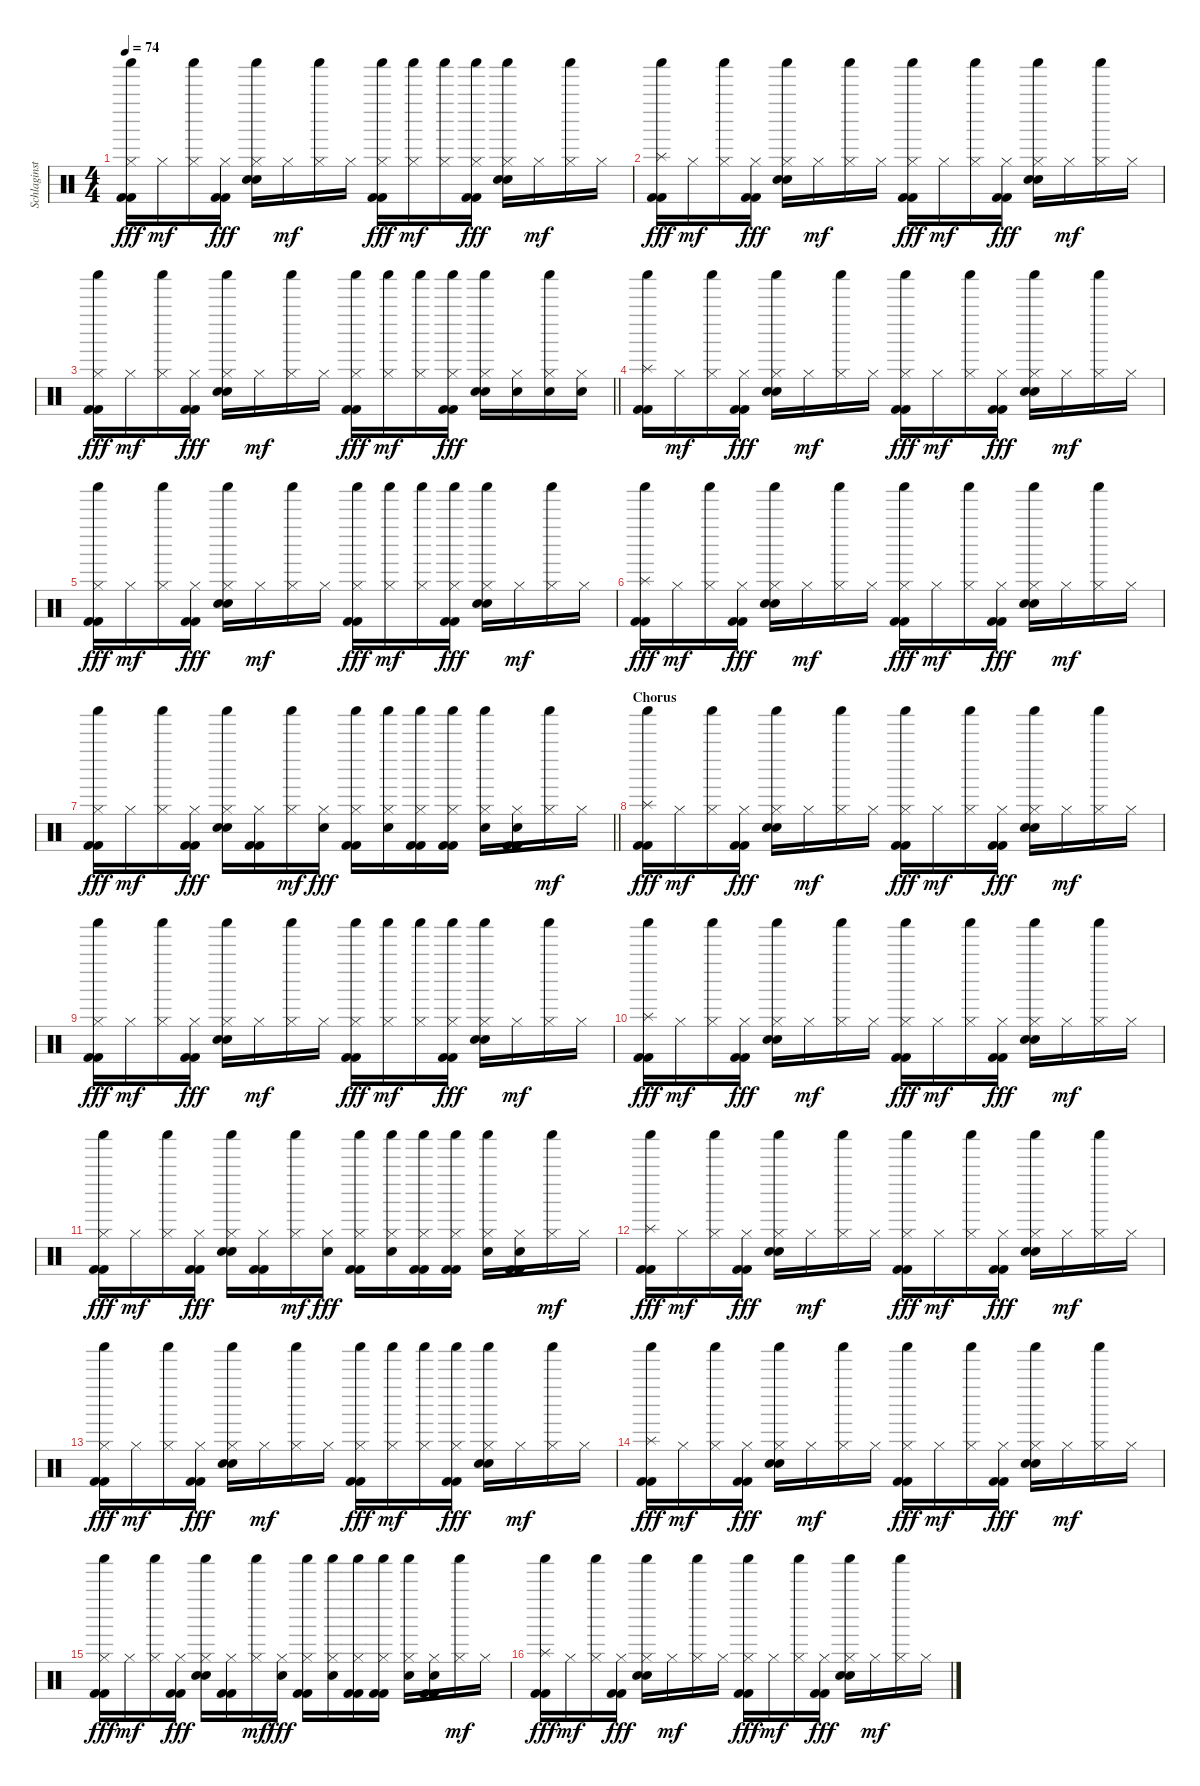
\track ("Schlaginstrumente - Auswahl" "Schlaginst") {instrument percussion}
\staff {score}
\articulation defaults
\ts (4 4)
\tempo 74
\clef neutral
\ks c
("Shaker (hit)" "Hi-Hat (closed)" "Kick (hit) 2" "Kick (hit) 2").16{dy fff} "Hi-Hat (closed)".16{dy mf} ("Shaker (hit)" "Hi-Hat (closed)").16 ("Hi-Hat (closed)" "Kick (hit) 2" "Kick (hit) 2").16{dy fff} ("Shaker (hit)" "Hi-Hat (closed)" "Electric Snare (hit)" "Hand Clap (hit)").16 "Hi-Hat (closed)".16{dy mf} ("Shaker (hit)" "Hi-Hat (closed)").16 "Hi-Hat (closed)".16 ("Shaker (hit)" "Hi-Hat (closed)" "Kick (hit) 2" "Kick (hit) 2").16{dy fff} ("Shaker (hit)" "Hi-Hat (closed)").16{dy mf} ("Shaker (hit)" "Hi-Hat (closed)").16 ("Shaker (hit)" "Hi-Hat (closed)" "Kick (hit) 2" "Kick (hit) 2").16{dy fff} ("Shaker (hit)" "Hi-Hat (closed)" "Electric Snare (hit)" "Hand Clap (hit)").16 "Hi-Hat (closed)".16{dy mf} ("Shaker (hit)" "Hi-Hat (closed)").16 "Hi-Hat (closed)".16 |
("Shaker (hit)" "Splash (hit)" "Kick (hit) 2" "Kick (hit) 2").16{dy fff} "Hi-Hat (closed)".16{dy mf} ("Shaker (hit)" "Hi-Hat (closed)").16 ("Hi-Hat (closed)" "Kick (hit) 2" "Kick (hit) 2").16{dy fff} ("Shaker (hit)" "Hi-Hat (closed)" "Electric Snare (hit)" "Hand Clap (hit)").16 "Hi-Hat (closed)".16{dy mf} ("Shaker (hit)" "Hi-Hat (closed)").16 "Hi-Hat (closed)".16 ("Shaker (hit)" "Hi-Hat (closed)" "Kick (hit) 2" "Kick (hit) 2").16{dy fff} "Hi-Hat (closed)".16{dy mf} ("Shaker (hit)" "Hi-Hat (closed)").16 ("Hi-Hat (closed)" "Kick (hit) 2" "Kick (hit) 2").16{dy fff} ("Shaker (hit)" "Hi-Hat (closed)" "Electric Snare (hit)" "Hand Clap (hit)").16 "Hi-Hat (closed)".16{dy mf} ("Shaker (hit)" "Hi-Hat (closed)").16 "Hi-Hat (closed)".16 |
\barLineRight lightlight
("Shaker (hit)" "Hi-Hat (closed)" "Kick (hit) 2" "Kick (hit) 2").16{dy fff} "Hi-Hat (closed)".16{dy mf} ("Shaker (hit)" "Hi-Hat (closed)").16 ("Hi-Hat (closed)" "Kick (hit) 2" "Kick (hit) 2").16{dy fff} ("Shaker (hit)" "Hi-Hat (closed)" "Electric Snare (hit)" "Hand Clap (hit)").16 "Hi-Hat (closed)".16{dy mf} ("Shaker (hit)" "Hi-Hat (closed)").16 "Hi-Hat (closed)".16 ("Shaker (hit)" "Hi-Hat (closed)" "Kick (hit) 2" "Kick (hit) 2").16{dy fff} ("Shaker (hit)" "Hi-Hat (closed)").16{dy mf} ("Shaker (hit)" "Hi-Hat (closed)").16 ("Shaker (hit)" "Hi-Hat (closed)" "Kick (hit) 2" "Kick (hit) 2").16{dy fff} ("Shaker (hit)" "Hi-Hat (closed)" "Electric Snare (hit)" "Hand Clap (hit)").16 ("Hi-Hat (closed)" "Electric Snare (hit)").16 ("Shaker (hit)" "Hi-Hat (closed)" "Electric Snare (hit)").16 ("Hi-Hat (closed)" "Electric Snare (hit)").16 |
("Shaker (hit)" "Splash (hit)" "Kick (hit) 2" "Kick (hit) 2").16 "Hi-Hat (closed)".16{dy mf} ("Shaker (hit)" "Hi-Hat (closed)").16 ("Hi-Hat (closed)" "Kick (hit) 2" "Kick (hit) 2").16{dy fff} ("Shaker (hit)" "Hi-Hat (closed)" "Electric Snare (hit)" "Hand Clap (hit)").16 "Hi-Hat (closed)".16{dy mf} ("Shaker (hit)" "Hi-Hat (closed)").16 "Hi-Hat (closed)".16 ("Shaker (hit)" "Hi-Hat (closed)" "Kick (hit) 2" "Kick (hit) 2").16{dy fff} "Hi-Hat (closed)".16{dy mf} ("Shaker (hit)" "Hi-Hat (closed)").16 ("Hi-Hat (closed)" "Kick (hit) 2" "Kick (hit) 2").16{dy fff} ("Shaker (hit)" "Hi-Hat (closed)" "Electric Snare (hit)" "Hand Clap (hit)").16 "Hi-Hat (closed)".16{dy mf} ("Shaker (hit)" "Hi-Hat (closed)").16 "Hi-Hat (closed)".16 |
("Shaker (hit)" "Hi-Hat (closed)" "Kick (hit) 2" "Kick (hit) 2").16{dy fff} "Hi-Hat (closed)".16{dy mf} ("Shaker (hit)" "Hi-Hat (closed)").16 ("Hi-Hat (closed)" "Kick (hit) 2" "Kick (hit) 2").16{dy fff} ("Shaker (hit)" "Hi-Hat (closed)" "Electric Snare (hit)" "Hand Clap (hit)").16 "Hi-Hat (closed)".16{dy mf} ("Shaker (hit)" "Hi-Hat (closed)").16 "Hi-Hat (closed)".16 ("Shaker (hit)" "Hi-Hat (closed)" "Kick (hit) 2" "Kick (hit) 2").16{dy fff} ("Shaker (hit)" "Hi-Hat (closed)").16{dy mf} ("Shaker (hit)" "Hi-Hat (closed)").16 ("Shaker (hit)" "Hi-Hat (closed)" "Kick (hit) 2" "Kick (hit) 2").16{dy fff} ("Shaker (hit)" "Hi-Hat (closed)" "Electric Snare (hit)" "Hand Clap (hit)").16 "Hi-Hat (closed)".16{dy mf} ("Shaker (hit)" "Hi-Hat (closed)").16 "Hi-Hat (closed)".16 |
("Shaker (hit)" "Splash (hit)" "Kick (hit) 2" "Kick (hit) 2").16{dy fff} "Hi-Hat (closed)".16{dy mf} ("Shaker (hit)" "Hi-Hat (closed)").16 ("Hi-Hat (closed)" "Kick (hit) 2" "Kick (hit) 2").16{dy fff} ("Shaker (hit)" "Hi-Hat (closed)" "Electric Snare (hit)" "Hand Clap (hit)").16 "Hi-Hat (closed)".16{dy mf} ("Shaker (hit)" "Hi-Hat (closed)").16 "Hi-Hat (closed)".16 ("Shaker (hit)" "Hi-Hat (closed)" "Kick (hit) 2" "Kick (hit) 2").16{dy fff} "Hi-Hat (closed)".16{dy mf} ("Shaker (hit)" "Hi-Hat (closed)").16 ("Hi-Hat (closed)" "Kick (hit) 2" "Kick (hit) 2").16{dy fff} ("Shaker (hit)" "Hi-Hat (closed)" "Electric Snare (hit)" "Hand Clap (hit)").16 "Hi-Hat (closed)".16{dy mf} ("Shaker (hit)" "Hi-Hat (closed)").16 "Hi-Hat (closed)".16 |
\barLineRight lightlight
("Shaker (hit)" "Hi-Hat (closed)" "Kick (hit) 2" "Kick (hit) 2").16{dy fff} "Hi-Hat (closed)".16{dy mf} ("Shaker (hit)" "Hi-Hat (closed)").16 ("Hi-Hat (closed)" "Kick (hit) 2" "Kick (hit) 2").16{dy fff} ("Shaker (hit)" "Hi-Hat (closed)" "Electric Snare (hit)" "Hand Clap (hit)").16 ("Hi-Hat (closed)" "Kick (hit) 2" "Kick (hit) 2").16 ("Shaker (hit)" "Hi-Hat (closed)").16{dy mf} ("Hi-Hat (closed)" "Electric Snare (hit)").16{dy fff} ("Shaker (hit)" "Hi-Hat (closed)" "Kick (hit) 2" "Kick (hit) 2").16 ("Shaker (hit)" "Hi-Hat (closed)" "Electric Snare (hit)").16 ("Shaker (hit)" "Hi-Hat (closed)" "Kick (hit) 2" "Kick (hit) 2").16 ("Shaker (hit)" "Hi-Hat (closed)" "Kick (hit) 2" "Kick (hit) 2").16 ("Shaker (hit)" "Hi-Hat (closed)" "Electric Snare (hit)").16 ("Hi-Hat (closed)" "Hand Clap (hit)" "Kick (hit) 2" "Kick (hit) 2").16 ("Shaker (hit)" "Hi-Hat (closed)").16{dy mf} "Hi-Hat (closed)".16 |
\section ("" "Chorus")
("Shaker (hit)" "Splash (hit)" "Kick (hit) 2" "Kick (hit) 2").16{dy fff} "Hi-Hat (closed)".16{dy mf} ("Shaker (hit)" "Hi-Hat (closed)").16 ("Hi-Hat (closed)" "Kick (hit) 2" "Kick (hit) 2").16{dy fff} ("Shaker (hit)" "Hi-Hat (closed)" "Electric Snare (hit)" "Hand Clap (hit)").16 "Hi-Hat (closed)".16{dy mf} ("Shaker (hit)" "Hi-Hat (closed)").16 "Hi-Hat (closed)".16 ("Shaker (hit)" "Hi-Hat (closed)" "Kick (hit) 2" "Kick (hit) 2").16{dy fff} "Hi-Hat (closed)".16{dy mf} ("Shaker (hit)" "Hi-Hat (closed)").16 ("Hi-Hat (closed)" "Kick (hit) 2" "Kick (hit) 2").16{dy fff} ("Shaker (hit)" "Hi-Hat (closed)" "Electric Snare (hit)" "Hand Clap (hit)").16 "Hi-Hat (closed)".16{dy mf} ("Shaker (hit)" "Hi-Hat (closed)").16 "Hi-Hat (closed)".16 |
("Shaker (hit)" "Hi-Hat (closed)" "Kick (hit) 2" "Kick (hit) 2").16{dy fff} "Hi-Hat (closed)".16{dy mf} ("Shaker (hit)" "Hi-Hat (closed)").16 ("Hi-Hat (closed)" "Kick (hit) 2" "Kick (hit) 2").16{dy fff} ("Shaker (hit)" "Hi-Hat (closed)" "Electric Snare (hit)" "Hand Clap (hit)").16 "Hi-Hat (closed)".16{dy mf} ("Shaker (hit)" "Hi-Hat (closed)").16 "Hi-Hat (closed)".16 ("Shaker (hit)" "Hi-Hat (closed)" "Kick (hit) 2" "Kick (hit) 2").16{dy fff} ("Shaker (hit)" "Hi-Hat (closed)").16{dy mf} ("Shaker (hit)" "Hi-Hat (closed)").16 ("Shaker (hit)" "Hi-Hat (closed)" "Kick (hit) 2" "Kick (hit) 2").16{dy fff} ("Shaker (hit)" "Hi-Hat (closed)" "Electric Snare (hit)" "Hand Clap (hit)").16 "Hi-Hat (closed)".16{dy mf} ("Shaker (hit)" "Hi-Hat (closed)").16 "Hi-Hat (closed)".16 |
("Shaker (hit)" "Splash (hit)" "Kick (hit) 2" "Kick (hit) 2").16{dy fff} "Hi-Hat (closed)".16{dy mf} ("Shaker (hit)" "Hi-Hat (closed)").16 ("Hi-Hat (closed)" "Kick (hit) 2" "Kick (hit) 2").16{dy fff} ("Shaker (hit)" "Hi-Hat (closed)" "Electric Snare (hit)" "Hand Clap (hit)").16 "Hi-Hat (closed)".16{dy mf} ("Shaker (hit)" "Hi-Hat (closed)").16 "Hi-Hat (closed)".16 ("Shaker (hit)" "Hi-Hat (closed)" "Kick (hit) 2" "Kick (hit) 2").16{dy fff} "Hi-Hat (closed)".16{dy mf} ("Shaker (hit)" "Hi-Hat (closed)").16 ("Hi-Hat (closed)" "Kick (hit) 2" "Kick (hit) 2").16{dy fff} ("Shaker (hit)" "Hi-Hat (closed)" "Electric Snare (hit)" "Hand Clap (hit)").16 "Hi-Hat (closed)".16{dy mf} ("Shaker (hit)" "Hi-Hat (closed)").16 "Hi-Hat (closed)".16 |
("Shaker (hit)" "Hi-Hat (closed)" "Kick (hit) 2" "Kick (hit) 2").16{dy fff} "Hi-Hat (closed)".16{dy mf} ("Shaker (hit)" "Hi-Hat (closed)").16 ("Hi-Hat (closed)" "Kick (hit) 2" "Kick (hit) 2").16{dy fff} ("Shaker (hit)" "Hi-Hat (closed)" "Electric Snare (hit)" "Hand Clap (hit)").16 ("Hi-Hat (closed)" "Kick (hit) 2" "Kick (hit) 2").16 ("Shaker (hit)" "Hi-Hat (closed)").16{dy mf} ("Hi-Hat (closed)" "Electric Snare (hit)").16{dy fff} ("Shaker (hit)" "Hi-Hat (closed)" "Kick (hit) 2" "Kick (hit) 2").16 ("Shaker (hit)" "Hi-Hat (closed)" "Electric Snare (hit)").16 ("Shaker (hit)" "Hi-Hat (closed)" "Kick (hit) 2" "Kick (hit) 2").16 ("Shaker (hit)" "Hi-Hat (closed)" "Kick (hit) 2" "Kick (hit) 2").16 ("Shaker (hit)" "Hi-Hat (closed)" "Electric Snare (hit)").16 ("Hi-Hat (closed)" "Hand Clap (hit)" "Kick (hit) 2" "Kick (hit) 2").16 ("Shaker (hit)" "Hi-Hat (closed)").16{dy mf} "Hi-Hat (closed)".16 |
("Shaker (hit)" "Splash (hit)" "Kick (hit) 2" "Kick (hit) 2").16{dy fff} "Hi-Hat (closed)".16{dy mf} ("Shaker (hit)" "Hi-Hat (closed)").16 ("Hi-Hat (closed)" "Kick (hit) 2" "Kick (hit) 2").16{dy fff} ("Shaker (hit)" "Hi-Hat (closed)" "Electric Snare (hit)" "Hand Clap (hit)").16 "Hi-Hat (closed)".16{dy mf} ("Shaker (hit)" "Hi-Hat (closed)").16 "Hi-Hat (closed)".16 ("Shaker (hit)" "Hi-Hat (closed)" "Kick (hit) 2" "Kick (hit) 2").16{dy fff} "Hi-Hat (closed)".16{dy mf} ("Shaker (hit)" "Hi-Hat (closed)").16 ("Hi-Hat (closed)" "Kick (hit) 2" "Kick (hit) 2").16{dy fff} ("Shaker (hit)" "Hi-Hat (closed)" "Electric Snare (hit)" "Hand Clap (hit)").16 "Hi-Hat (closed)".16{dy mf} ("Shaker (hit)" "Hi-Hat (closed)").16 "Hi-Hat (closed)".16 |
("Shaker (hit)" "Hi-Hat (closed)" "Kick (hit) 2" "Kick (hit) 2").16{dy fff} "Hi-Hat (closed)".16{dy mf} ("Shaker (hit)" "Hi-Hat (closed)").16 ("Hi-Hat (closed)" "Kick (hit) 2" "Kick (hit) 2").16{dy fff} ("Shaker (hit)" "Hi-Hat (closed)" "Electric Snare (hit)" "Hand Clap (hit)").16 "Hi-Hat (closed)".16{dy mf} ("Shaker (hit)" "Hi-Hat (closed)").16 "Hi-Hat (closed)".16 ("Shaker (hit)" "Hi-Hat (closed)" "Kick (hit) 2" "Kick (hit) 2").16{dy fff} ("Shaker (hit)" "Hi-Hat (closed)").16{dy mf} ("Shaker (hit)" "Hi-Hat (closed)").16 ("Shaker (hit)" "Hi-Hat (closed)" "Kick (hit) 2" "Kick (hit) 2").16{dy fff} ("Shaker (hit)" "Hi-Hat (closed)" "Electric Snare (hit)" "Hand Clap (hit)").16 "Hi-Hat (closed)".16{dy mf} ("Shaker (hit)" "Hi-Hat (closed)").16 "Hi-Hat (closed)".16 |
("Shaker (hit)" "Splash (hit)" "Kick (hit) 2" "Kick (hit) 2").16{dy fff} "Hi-Hat (closed)".16{dy mf} ("Shaker (hit)" "Hi-Hat (closed)").16 ("Hi-Hat (closed)" "Kick (hit) 2" "Kick (hit) 2").16{dy fff} ("Shaker (hit)" "Hi-Hat (closed)" "Electric Snare (hit)" "Hand Clap (hit)").16 "Hi-Hat (closed)".16{dy mf} ("Shaker (hit)" "Hi-Hat (closed)").16 "Hi-Hat (closed)".16 ("Shaker (hit)" "Hi-Hat (closed)" "Kick (hit) 2" "Kick (hit) 2").16{dy fff} "Hi-Hat (closed)".16{dy mf} ("Shaker (hit)" "Hi-Hat (closed)").16 ("Hi-Hat (closed)" "Kick (hit) 2" "Kick (hit) 2").16{dy fff} ("Shaker (hit)" "Hi-Hat (closed)" "Electric Snare (hit)" "Hand Clap (hit)").16 "Hi-Hat (closed)".16{dy mf} ("Shaker (hit)" "Hi-Hat (closed)").16 "Hi-Hat (closed)".16 |
("Shaker (hit)" "Hi-Hat (closed)" "Kick (hit) 2" "Kick (hit) 2").16{dy fff} "Hi-Hat (closed)".16{dy mf} ("Shaker (hit)" "Hi-Hat (closed)").16 ("Hi-Hat (closed)" "Kick (hit) 2" "Kick (hit) 2").16{dy fff} ("Shaker (hit)" "Hi-Hat (closed)" "Electric Snare (hit)" "Hand Clap (hit)").16 ("Hi-Hat (closed)" "Kick (hit) 2" "Kick (hit) 2").16 ("Shaker (hit)" "Hi-Hat (closed)").16{dy mf} ("Hi-Hat (closed)" "Electric Snare (hit)").16{dy fff} ("Shaker (hit)" "Hi-Hat (closed)" "Kick (hit) 2" "Kick (hit) 2").16 ("Shaker (hit)" "Hi-Hat (closed)" "Electric Snare (hit)").16 ("Shaker (hit)" "Hi-Hat (closed)" "Kick (hit) 2" "Kick (hit) 2").16 ("Shaker (hit)" "Hi-Hat (closed)" "Kick (hit) 2" "Kick (hit) 2").16 ("Shaker (hit)" "Hi-Hat (closed)" "Electric Snare (hit)").16 ("Hi-Hat (closed)" "Hand Clap (hit)" "Kick (hit) 2" "Kick (hit) 2").16 ("Shaker (hit)" "Hi-Hat (closed)").16{dy mf} "Hi-Hat (closed)".16 |
("Shaker (hit)" "Splash (hit)" "Kick (hit) 2" "Kick (hit) 2").16{dy fff} "Hi-Hat (closed)".16{dy mf} ("Shaker (hit)" "Hi-Hat (closed)").16 ("Hi-Hat (closed)" "Kick (hit) 2" "Kick (hit) 2").16{dy fff} ("Shaker (hit)" "Hi-Hat (closed)" "Electric Snare (hit)" "Hand Clap (hit)").16 "Hi-Hat (closed)".16{dy mf} ("Shaker (hit)" "Hi-Hat (closed)").16 "Hi-Hat (closed)".16 ("Shaker (hit)" "Hi-Hat (closed)" "Kick (hit) 2" "Kick (hit) 2").16{dy fff} "Hi-Hat (closed)".16{dy mf} ("Shaker (hit)" "Hi-Hat (closed)").16 ("Hi-Hat (closed)" "Kick (hit) 2" "Kick (hit) 2").16{dy fff} ("Shaker (hit)" "Hi-Hat (closed)" "Electric Snare (hit)" "Hand Clap (hit)").16 "Hi-Hat (closed)".16{dy mf} ("Shaker (hit)" "Hi-Hat (closed)").16 "Hi-Hat (closed)".16
